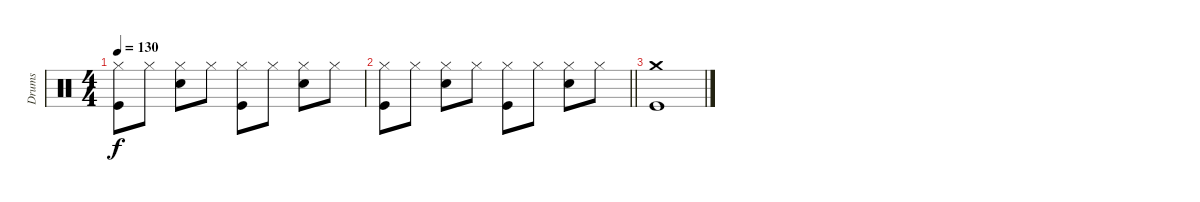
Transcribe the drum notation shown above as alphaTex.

\track ("Drums" "Drums") {instrument percussion}
\staff {score}
\articulation defaults
\ts (4 4)
\tempo 130
\clef neutral
\ks c
("Hi-Hat (closed)" "Kick (hit)").8{dy f} "Hi-Hat (closed)".8 ("Hi-Hat (closed)" "Snare (hit) 2").8 "Hi-Hat (closed)".8 ("Hi-Hat (closed)" "Kick (hit)").8 "Hi-Hat (closed)".8 ("Hi-Hat (closed)" "Snare (hit) 2").8 "Hi-Hat (closed)".8 |
\barLineRight lightlight
("Hi-Hat (closed)" "Kick (hit)").8 "Hi-Hat (closed)".8 ("Hi-Hat (closed)" "Snare (hit) 2").8 "Hi-Hat (closed)".8 ("Hi-Hat (closed)" "Kick (hit)").8 "Hi-Hat (closed)".8 ("Hi-Hat (closed)" "Snare (hit) 2").8 "Hi-Hat (closed)".8 |
("Crash medium (hit)" "Kick (hit)").1
